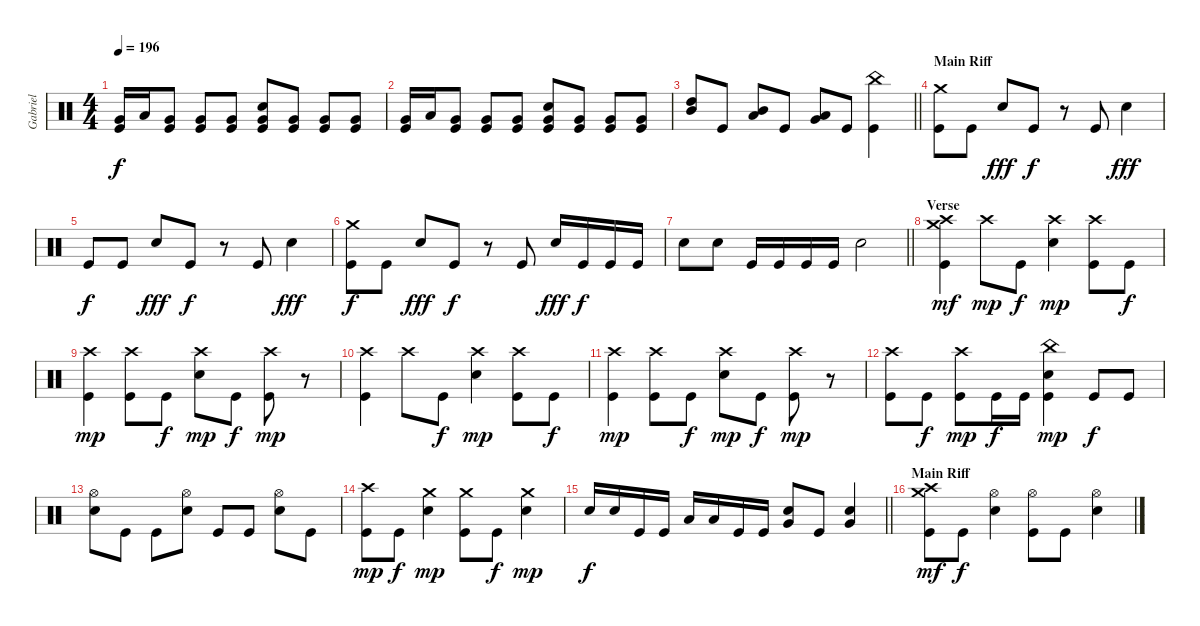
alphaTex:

\track ("Gabriel" "Gabriel") {instrument percussion}
\staff {score}
\articulation defaults
\ts (4 4)
\tempo 196
\clef neutral
\ks aminor
("Very Low Tom (hit)" "Kick (hit)").16{dy f} "Low Tom (hit)".16 ("Very Low Tom (hit)" "Kick (hit)").8 ("Very Low Tom (hit)" "Kick (hit)").8 ("Very Low Tom (hit)" "Kick (hit)").8 ("Snare (hit) 2" "Very Low Tom (hit)" "Kick (hit)").8 ("Very Low Tom (hit)" "Kick (hit)").8 ("Very Low Tom (hit)" "Kick (hit)").8 ("Very Low Tom (hit)" "Kick (hit)").8 |
("Very Low Tom (hit)" "Kick (hit)").16 "Low Tom (hit)".16 ("Very Low Tom (hit)" "Kick (hit)").8 ("Very Low Tom (hit)" "Kick (hit)").8 ("Very Low Tom (hit)" "Kick (hit)").8 ("Snare (hit) 2" "Very Low Tom (hit)" "Kick (hit)").8 ("Very Low Tom (hit)" "Kick (hit)").8 ("Very Low Tom (hit)" "Kick (hit)").8 ("Very Low Tom (hit)" "Kick (hit)").8 |
\barLineRight lightlight
("High Tom (hit)" "Mid Tom (hit)").8 "Kick (hit)".8 ("Mid Tom (hit)" "Low Tom (hit)").8 "Kick (hit)".8 ("Low Tom (hit)" "Very Low Tom (hit)").8 "Kick (hit)".8 ("China (hit)" "Kick (hit)").4 |
\section ("" "Main Riff")
("Crash medium (hit)" "Kick (hit)").8 "Kick (hit)".8 "Snare (hit) 2".8{dy fff} "Kick (hit)".8{dy f} r.8 "Kick (hit)".8 "Snare (hit) 2".4{dy fff} |
"Kick (hit)".8{dy f} "Kick (hit)".8 "Snare (hit) 2".8{dy fff} "Kick (hit)".8{dy f} r.8 "Kick (hit)".8 "Snare (hit) 2".4{dy fff} |
("Crash medium (hit)" "Kick (hit)").8{dy f} "Kick (hit)".8 "Snare (hit) 2".8{dy fff} "Kick (hit)".8{dy f} r.8 "Kick (hit)".8 "Snare (hit) 2".16{dy fff} "Kick (hit)".16{dy f} "Kick (hit)".16 "Kick (hit)".16 |
\barLineRight lightlight "Snare (hit) 2".8 "Snare (hit) 2".8 "Kick (hit)".16 "Kick (hit)".16 "Kick (hit)".16 "Kick (hit)".16 "Snare (hit) 2".2
|
\section ("" "Verse")
("Crash high (hit)" "Crash medium (hit)" "Kick (hit)").4{dy mf} "Crash high (hit)".8{dy mp} "Kick (hit)".8{dy f} ("Crash high (hit)" "Snare (hit) 2").4{dy mp} ("Crash high (hit)" "Kick (hit)").8 "Kick (hit)".8{dy f} |
("Crash high (hit)" "Kick (hit)").4{dy mp} ("Crash high (hit)" "Kick (hit)").8 "Kick (hit)".8{dy f} ("Crash high (hit)" "Snare (hit) 2").8{dy mp} "Kick (hit)".8{dy f} ("Crash high (hit)" "Kick (hit)").8{dy mp} r.8 |
("Crash high (hit)" "Kick (hit)").4 "Crash high (hit)".8 "Kick (hit)".8{dy f} ("Crash high (hit)" "Snare (hit) 2").4{dy mp} ("Crash high (hit)" "Kick (hit)").8 "Kick (hit)".8{dy f} |
("Crash high (hit)" "Kick (hit)").4{dy mp} ("Crash high (hit)" "Kick (hit)").8 "Kick (hit)".8{dy f} ("Crash high (hit)" "Snare (hit) 2").8{dy mp} "Kick (hit)".8{dy f} ("Crash high (hit)" "Kick (hit)").8{dy mp} r.8 |
("Crash high (hit)" "Kick (hit)").8 "Kick (hit)".8{dy f} ("Crash high (hit)" "Kick (hit)").8{dy mp} "Kick (hit)".16{dy f} "Kick (hit)".16 ("China (hit)" "Snare (hit) 2" "Kick (hit)").4{dy mp} "Kick (hit)".8{dy f} "Kick (hit)".8 |
("Hi-Hat (open)" "Snare (hit) 2").8 "Kick (hit)".8 "Kick (hit)".8 ("Hi-Hat (open)" "Snare (hit) 2").8 "Kick (hit)".8 "Kick (hit)".8 ("Hi-Hat (open)" "Snare (hit) 2").8 "Kick (hit)".8 |
("Crash high (hit)" "Kick (hit)").8{dy mp} "Kick (hit)".8{dy f} ("Crash medium (hit)" "Snare (hit) 2").4{dy mp} ("Crash medium (hit)" "Kick (hit)").8 "Kick (hit)".8{dy f} ("Crash medium (hit)" "Snare (hit) 2").4{dy mp} |
\barLineRight lightlight "Snare (hit) 2".16{dy f} "Snare (hit) 2".16 "Kick (hit)".16 "Kick (hit)".16 "Low Tom (hit)".16 "Low Tom (hit)".16 "Kick (hit)".16 "Kick (hit)".16
("Very Low Tom (hit)" "Snare (hit) 2").8 "Kick (hit)".8 ("Very Low Tom (hit)" "Snare (hit) 2").4 |
\section ("" "Main Riff")
("Crash medium (hit)" "Crash high (hit)" "Kick (hit)").8{dy mf} "Kick (hit)".8{dy f} ("Hi-Hat (open)" "Snare (hit) 2").4 ("Hi-Hat (open)" "Kick (hit)").8 "Kick (hit)".8 ("Hi-Hat (open)" "Snare (hit) 2").4
